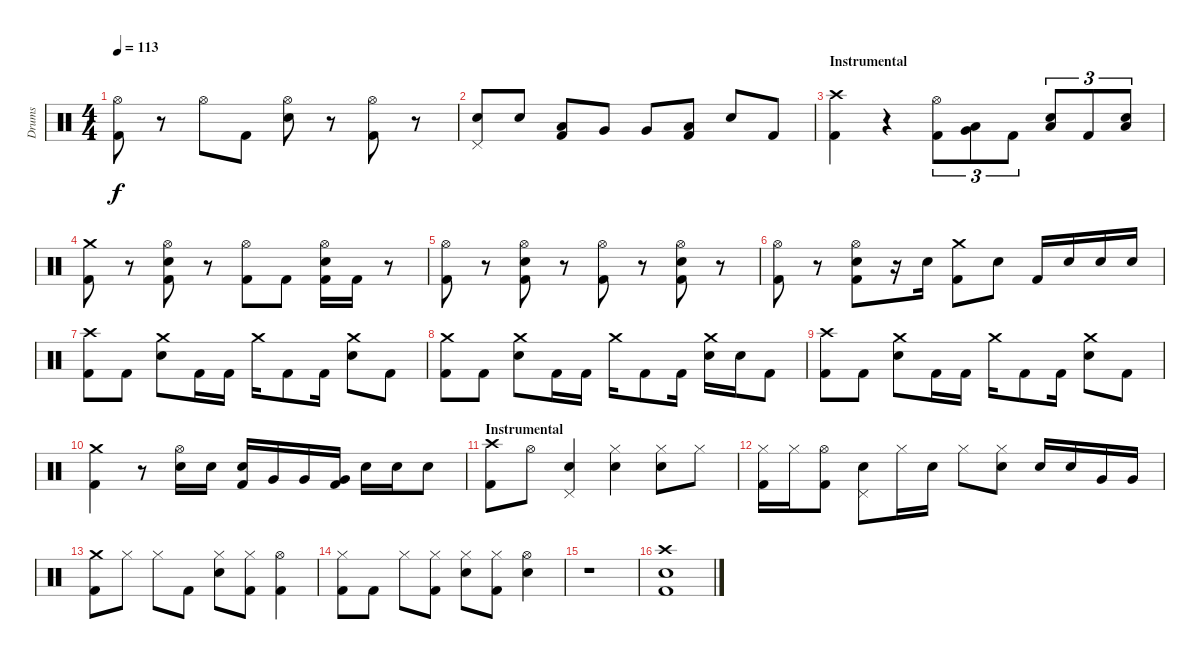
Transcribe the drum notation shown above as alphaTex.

\track ("Drums" "Drums") {instrument percussion}
\staff {score}
\articulation defaults
\ts (4 4)
\tempo 113
\clef neutral
\ks c
("Hi-Hat (open)" "Kick (hit) 2").8{dy f} r.8 "Hi-Hat (open)".8 "Kick (hit) 2".8 ("Hi-Hat (open)" "Snare (hit) 2").8 r.8 ("Hi-Hat (open)" "Kick (hit) 2").8 r.8 |
("Pedal Hi-Hat (hit)" "Snare (hit) 2").8 "Snare (hit) 2".8 ("Low Floor Tom (hit)" "Kick (hit) 2").8 "Very Low Tom (hit)".8 "Very Low Tom (hit)".8 ("Low Floor Tom (hit)" "Kick (hit) 2").8 "Snare (hit) 2".8 "Kick (hit) 2".8 |
\section ("" "Instrumental")
("Crash high (hit)" "Kick (hit) 2").4 r.4 ("Hi-Hat (open)" "Kick (hit) 2").8{tu (3 2)} ("Very Low Tom (hit)" "Low Floor Tom (hit)").8{tu (3 2)} "Kick (hit) 2".8{tu (3 2)} ("Snare (hit) 2" "Low Floor Tom (hit)").8{tu (3 2)} "Kick (hit) 2".8{tu (3 2)} ("Snare (hit) 2" "Low Floor Tom (hit)").8{tu (3 2)} |
("Crash medium (hit)" "Kick (hit) 2").8 r.8 ("Hi-Hat (open)" "Snare (hit) 2" "Kick (hit) 2").8 r.8 ("Hi-Hat (open)" "Kick (hit) 2").8 "Kick (hit) 2".8 ("Hi-Hat (open)" "Snare (hit) 2" "Kick (hit) 2").16 "Kick (hit) 2".16 r.8 |
("Hi-Hat (open)" "Kick (hit) 2").8 r.8 ("Hi-Hat (open)" "Snare (hit) 2" "Kick (hit) 2").8 r.8 ("Hi-Hat (open)" "Kick (hit) 2").8 r.8 ("Hi-Hat (open)" "Snare (hit) 2" "Kick (hit) 2").8 r.8 |
("Hi-Hat (open)" "Kick (hit) 2").8 r.8 ("Hi-Hat (open)" "Snare (hit) 2" "Kick (hit) 2").8 r.16 "Snare (hit) 2".16 ("Crash medium (hit)" "Kick (hit) 2").8 "Snare (hit) 2".8 "Kick (hit) 2".16 "Snare (hit) 2".16 "Snare (hit) 2".16 "Snare (hit) 2".16 |
("Crash high (hit)" "Kick (hit) 2").8 "Kick (hit) 2".8 ("Crash medium (hit)" "Snare (hit) 2").8 "Kick (hit) 2".16 "Kick (hit) 2".16 "Crash medium (hit)".16 "Kick (hit) 2".8 "Kick (hit) 2".16 ("Crash medium (hit)" "Snare (hit) 2").8 "Kick (hit) 2".8 |
("Crash medium (hit)" "Kick (hit) 2").8 "Kick (hit) 2".8 ("Crash medium (hit)" "Snare (hit) 2").8 "Kick (hit) 2".16 "Kick (hit) 2".16 "Crash medium (hit)".16 "Kick (hit) 2".8 "Kick (hit) 2".16 ("Crash medium (hit)" "Snare (hit) 2").16 "Snare (hit) 2".16 "Kick (hit) 2".8 |
("Crash high (hit)" "Kick (hit) 2").8 "Kick (hit) 2".8 ("Crash medium (hit)" "Snare (hit) 2").8 "Kick (hit) 2".16 "Kick (hit) 2".16 "Crash medium (hit)".16 "Kick (hit) 2".8 "Kick (hit) 2".16 ("Crash medium (hit)" "Snare (hit) 2").8 "Kick (hit) 2".8 |
("Crash medium (hit)" "Kick (hit) 2").4 r.8 ("Hi-Hat (open)" "Snare (hit) 2").16 "Snare (hit) 2".16 ("Snare (hit) 2" "Kick (hit) 2").16 "Very Low Tom (hit)".16 "Very Low Tom (hit)".16 ("Very Low Tom (hit)" "Kick (hit) 2").16 "Snare (hit) 2".16 "Snare (hit) 2".16 "Snare (hit) 2".8 |
\section ("" "Instrumental")
("Crash high (hit)" "Kick (hit) 2").8 "Hi-Hat (open)".8 ("Pedal Hi-Hat (hit)" "Snare (hit) 2").4 ("Hi-Hat (closed)" "Snare (hit) 2").4 ("Hi-Hat (closed)" "Snare (hit) 2").8 "Hi-Hat (closed)".8 |
("Hi-Hat (closed)" "Kick (hit) 2").16 "Hi-Hat (closed)".16 ("Hi-Hat (open)" "Kick (hit) 2").8 ("Pedal Hi-Hat (hit)" "Snare (hit) 2").8 "Hi-Hat (closed)".16 "Snare (hit) 2".16 "Hi-Hat (closed)".8 ("Hi-Hat (closed)" "Snare (hit) 2").8 "Snare (hit) 2".16 "Snare (hit) 2".16 "Very Low Tom (hit)".16 "Very Low Tom (hit)".16 |
("Crash medium (hit)" "Kick (hit) 2").8 "Hi-Hat (closed)".8 "Hi-Hat (closed)".8 "Kick (hit) 2".8 ("Hi-Hat (closed)" "Snare (hit) 2").8 ("Hi-Hat (closed)" "Kick (hit) 2").8 ("Hi-Hat (open)" "Kick (hit) 2").4 |
("Hi-Hat (closed)" "Kick (hit) 2").8 "Kick (hit) 2".8 "Hi-Hat (closed)".8 ("Hi-Hat (closed)" "Kick (hit) 2").8 ("Hi-Hat (closed)" "Snare (hit) 2").8 ("Hi-Hat (closed)" "Kick (hit) 2").8 ("Hi-Hat (open)" "Snare (hit) 2").4 |
r.1 |
("Crash high (hit)" "Snare (hit) 2" "Kick (hit) 2").1
